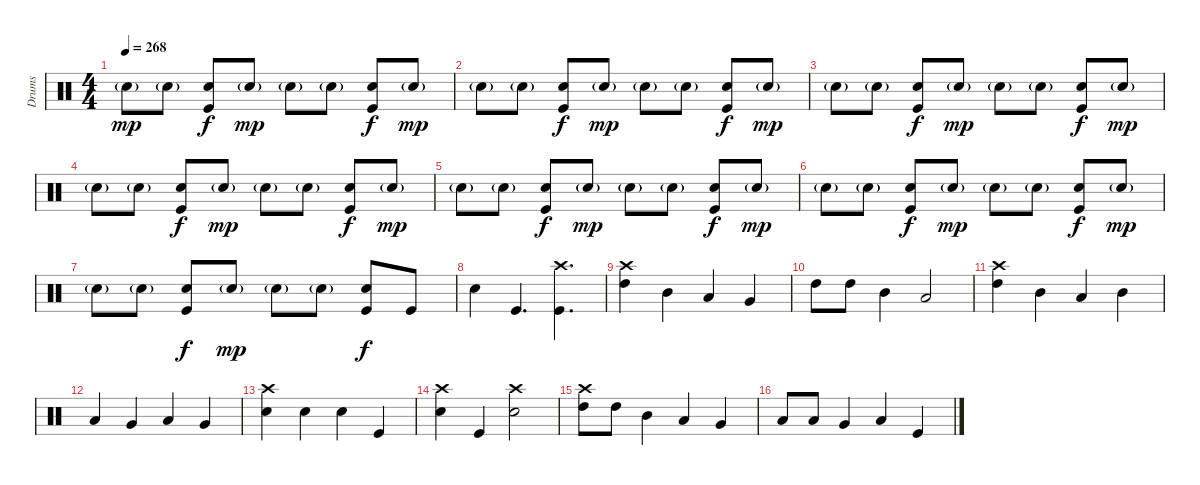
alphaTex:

\track ("Drums" "Drums") {instrument percussion}
\staff {score}
\articulation defaults
\ts (4 4)
\tempo 268
\clef neutral
\ks c "Electric Snare (hit)"{g}.8{dy mp} "Electric Snare (hit)"{g}.8
("Electric Snare (hit)" "Kick (hit)").8{dy f} "Electric Snare (hit)"{g}.8{dy mp} "Electric Snare (hit)"{g}.8 "Electric Snare (hit)"{g}.8 ("Electric Snare (hit)" "Kick (hit)").8{dy f} "Electric Snare (hit)"{g}.8{dy mp} |
"Electric Snare (hit)"{g}.8 "Electric Snare (hit)"{g}.8 ("Electric Snare (hit)" "Kick (hit)").8{dy f} "Electric Snare (hit)"{g}.8{dy mp} "Electric Snare (hit)"{g}.8 "Electric Snare (hit)"{g}.8 ("Electric Snare (hit)" "Kick (hit)").8{dy f} "Electric Snare (hit)"{g}.8{dy mp} |
"Electric Snare (hit)"{g}.8 "Electric Snare (hit)"{g}.8 ("Electric Snare (hit)" "Kick (hit)").8{dy f} "Electric Snare (hit)"{g}.8{dy mp} "Electric Snare (hit)"{g}.8 "Electric Snare (hit)"{g}.8 ("Electric Snare (hit)" "Kick (hit)").8{dy f} "Electric Snare (hit)"{g}.8{dy mp} |
"Electric Snare (hit)"{g}.8 "Electric Snare (hit)"{g}.8 ("Electric Snare (hit)" "Kick (hit)").8{dy f} "Electric Snare (hit)"{g}.8{dy mp} "Electric Snare (hit)"{g}.8 "Electric Snare (hit)"{g}.8 ("Electric Snare (hit)" "Kick (hit)").8{dy f} "Electric Snare (hit)"{g}.8{dy mp} |
"Electric Snare (hit)"{g}.8 "Electric Snare (hit)"{g}.8 ("Electric Snare (hit)" "Kick (hit)").8{dy f} "Electric Snare (hit)"{g}.8{dy mp} "Electric Snare (hit)"{g}.8 "Electric Snare (hit)"{g}.8 ("Electric Snare (hit)" "Kick (hit)").8{dy f} "Electric Snare (hit)"{g}.8{dy mp} |
"Electric Snare (hit)"{g}.8 "Electric Snare (hit)"{g}.8 ("Electric Snare (hit)" "Kick (hit)").8{dy f} "Electric Snare (hit)"{g}.8{dy mp} "Electric Snare (hit)"{g}.8 "Electric Snare (hit)"{g}.8 ("Electric Snare (hit)" "Kick (hit)").8{dy f} "Electric Snare (hit)"{g}.8{dy mp} |
"Electric Snare (hit)"{g}.8 "Electric Snare (hit)"{g}.8 ("Electric Snare (hit)" "Kick (hit)").8{dy f} "Electric Snare (hit)"{g}.8{dy mp} "Electric Snare (hit)"{g}.8 "Electric Snare (hit)"{g}.8 ("Electric Snare (hit)" "Kick (hit)").8{dy f} "Kick (hit)".8 |
"Electric Snare (hit)".4 "Kick (hit)".4{d} ("Crash high (hit)" "Kick (hit)").4{d} |
("Crash high (hit)" "High Tom (hit)").4 "Mid Tom (hit)".4 "Low Tom (hit)".4 "Very Low Tom (hit)".4 |
"High Tom (hit)".8 "High Tom (hit)".8 "Mid Tom (hit)".4 "Low Tom (hit)".2 |
("Crash high (hit)" "High Tom (hit)").4 "Mid Tom (hit)".4 "Low Tom (hit)".4 "Mid Tom (hit)".4 |
"Low Tom (hit)".4 "Very Low Tom (hit)".4 "Low Tom (hit)".4 "Very Low Tom (hit)".4 |
("Crash high (hit)" "Electric Snare (hit)").4 "Electric Snare (hit)".4 "Electric Snare (hit)".4 "Kick (hit)".4 |
("Crash high (hit)" "Electric Snare (hit)").4 "Kick (hit)".4 ("Crash high (hit)" "Electric Snare (hit)").2 |
("Crash high (hit)" "High Tom (hit)").8 "High Tom (hit)".8 "Mid Tom (hit)".4 "Low Tom (hit)".4 "Very Low Tom (hit)".4 |
"Low Tom (hit)".8 "Low Tom (hit)".8 "Very Low Tom (hit)".4 "Low Floor Tom (hit)".4 "Kick (hit)".4
